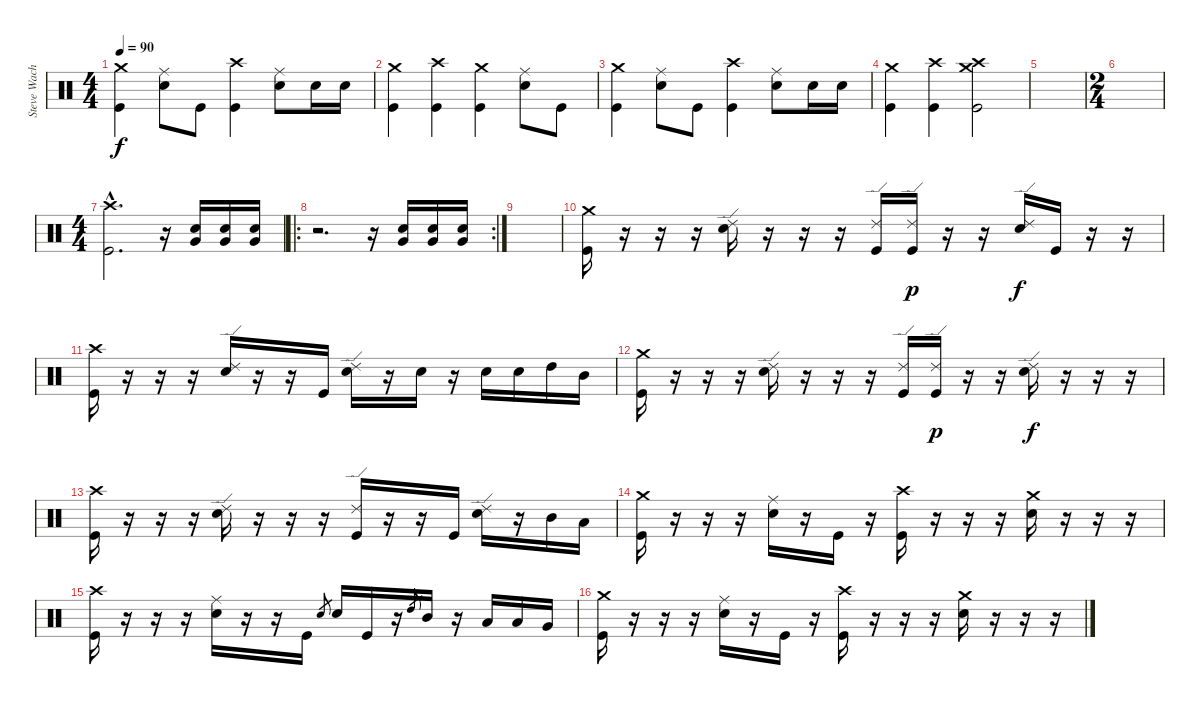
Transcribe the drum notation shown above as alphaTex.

\track ("Steve Wacholz" "Steve Wach") {instrument percussion}
\staff {score}
\articulation defaults
\ts (4 4)
\tempo 90
\clef neutral
\ks c
("Crash medium (hit)" "Kick (hit)").4{dy f} ("Ride (middle)" "Electric Snare (hit)").8 "Kick (hit)".8 ("Crash high (hit)" "Kick (hit)").4 ("Ride (middle)" "Electric Snare (hit)").8 "Electric Snare (hit)".16 "Electric Snare (hit)".16 |
("Crash medium (hit)" "Kick (hit)").4 ("Crash high (hit)" "Kick (hit)").4 ("Crash medium (hit)" "Kick (hit)").4 ("Ride (middle)" "Electric Snare (hit)").8 "Kick (hit)".8 |
("Crash medium (hit)" "Kick (hit)").4 ("Ride (middle)" "Electric Snare (hit)").8 "Kick (hit)".8 ("Crash high (hit)" "Kick (hit)").4 ("Ride (middle)" "Electric Snare (hit)").8 "Electric Snare (hit)".16 "Electric Snare (hit)".16 |
("Crash medium (hit)" "Kick (hit)").4 ("Crash high (hit)" "Kick (hit)").4 ("Crash medium (hit)" "Crash high (hit)" "Kick (hit)").2 |
|
\ts (2 4)
|
\ts (4 4)
("Crash high (hit)"{hac} "Kick (hit)"{hac}).2{d} r.16 ("Electric Snare (hit)" "Very Low Tom (hit)").16 ("Electric Snare (hit)" "Very Low Tom (hit)").16 ("Electric Snare (hit)" "Very Low Tom (hit)").16 |
\ro
\rc 2
r.2{d} r.16 ("Electric Snare (hit)" "Very Low Tom (hit)").16 ("Electric Snare (hit)" "Very Low Tom (hit)").16 ("Electric Snare (hit)" "Very Low Tom (hit)").16 |
|
("Crash medium (hit)" "Kick (hit)").16 r.16 r.16 r.16 ("Ride (edge) 2" "Electric Snare (hit)").16 r.16 r.16 r.16 ("Ride (edge) 2" "Kick (hit)").16 ("Ride (edge) 2" "Kick (hit)").16{dy p} r.16 r.16 ("Ride (edge) 2" "Electric Snare (hit)").16{dy f} "Kick (hit)".16 r.16 r.16 |
("Crash high (hit)" "Kick (hit)").16 r.16 r.16 r.16 ("Ride (edge) 2" "Electric Snare (hit)").16 r.16 r.16 "Kick (hit)".16 ("Ride (edge) 2" "Electric Snare (hit)").16 r.16 "Electric Snare (hit)".16 r.16 "Electric Snare (hit)".16 "Electric Snare (hit)".16 "High Tom (hit)".16 "Mid Tom (hit)".16 |
("Crash medium (hit)" "Kick (hit)").16 r.16 r.16 r.16 ("Ride (edge) 2" "Electric Snare (hit)").16 r.16 r.16 r.16 ("Ride (edge) 2" "Kick (hit)").16 ("Ride (edge) 2" "Kick (hit)").16{dy p} r.16 r.16 ("Ride (edge) 2" "Electric Snare (hit)").16{dy f} r.16 r.16 r.16 |
("Crash high (hit)" "Kick (hit)").16 r.16 r.16 r.16 ("Ride (edge) 2" "Electric Snare (hit)").16 r.16 r.16 r.16 ("Ride (edge) 2" "Kick (hit)").16 r.16 r.16 "Kick (hit)".16 ("Ride (edge) 2" "Electric Snare (hit)").16 r.16 "Mid Tom (hit)".16 "Low Tom (hit)".16 |
("Crash medium (hit)" "Kick (hit)").16 r.16 r.16 r.16 ("Ride (middle)" "Electric Snare (hit)").16 r.16 "Kick (hit)".16 r.16 ("Crash high (hit)" "Kick (hit)").16 r.16 r.16 r.16 ("Crash medium (hit)" "Electric Snare (hit)").16 r.16 r.16 r.16 |
("Crash high (hit)" "Kick (hit)").16 r.16 r.16 r.16 ("Ride (middle)" "Electric Snare (hit)").16 r.16 r.16 "Kick (hit)".16 "Electric Snare (hit)".8{gr} "Electric Snare (hit)".16 "Kick (hit)".16 r.16 "High Tom (hit)".8{gr} "Mid Tom (hit)".16 r.16 "Low Tom (hit)".16 "Low Tom (hit)".16 "Very Low Tom (hit)".16 |
("Crash medium (hit)" "Kick (hit)").16 r.16 r.16 r.16 ("Ride (middle)" "Electric Snare (hit)").16 r.16 "Kick (hit)".16 r.16 ("Crash high (hit)" "Kick (hit)").16 r.16 r.16 r.16 ("Crash medium (hit)" "Electric Snare (hit)").16 r.16 r.16 r.16
